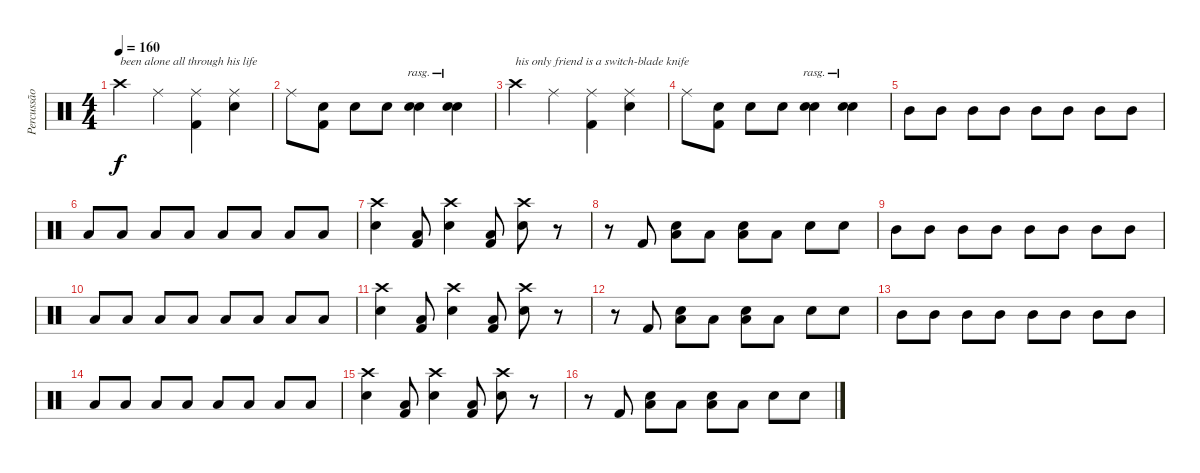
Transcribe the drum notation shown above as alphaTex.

\track ("Percussão" "Percussão") {instrument percussion}
\staff {score}
\articulation defaults
\ts (4 4)
\tempo 160
\clef neutral
\ks c "Crash high (hit)".4{txt "been alone all through his life" dy f} "Ride (middle)".4
("Ride (middle)" "Kick (hit) 2").4 ("Ride (middle)" "Snare (hit) 2").4 |
"Ride (middle)".8 ("Snare (hit) 2" "Kick (hit) 2").8 "Snare (hit) 2".8 "Snare (hit) 2".8 ("Snare (hit) 2" "Snare (hit) 2").4{bd 240 rasg ii} ("Snare (hit) 2" "Snare (hit) 2").4{bu 120 rasg ii} |
"Crash high (hit)".4{txt "his only friend is a switch-blade knife"} "Ride (middle)".4 ("Ride (middle)" "Kick (hit) 2").4 ("Ride (middle)" "Snare (hit) 2").4 |
"Ride (middle)".8 ("Snare (hit) 2" "Kick (hit) 2").8 "Snare (hit) 2".8 "Snare (hit) 2".8 ("Snare (hit) 2" "Snare (hit) 2").4{bd 240 rasg ii} ("Snare (hit) 2" "Snare (hit) 2").4{bu 120 rasg ii} |
"Mid Tom (hit)".8 "Mid Tom (hit)".8 "Mid Tom (hit)".8 "Mid Tom (hit)".8 "Mid Tom (hit)".8 "Mid Tom (hit)".8 "Mid Tom (hit)".8 "Mid Tom (hit)".8 |
"Low Floor Tom (hit)".8 "Low Floor Tom (hit)".8 "Low Floor Tom (hit)".8 "Low Floor Tom (hit)".8 "Low Floor Tom (hit)".8 "Low Floor Tom (hit)".8 "Low Floor Tom (hit)".8 "Low Floor Tom (hit)".8 |
("Crash high (hit)" "Snare (hit) 2").4 ("Low Floor Tom (hit)" "Kick (hit) 2").8 ("Crash high (hit)" "Snare (hit) 2").4 ("Low Floor Tom (hit)" "Kick (hit) 2").8 ("Crash high (hit)" "Snare (hit) 2").8 r.8 |
r.8 "Kick (hit) 2".8 ("Low Tom (hit)" "Snare (hit) 2").8 "Low Tom (hit)".8 ("Low Floor Tom (hit)" "Snare (hit) 2").8 "Low Floor Tom (hit)".8 "Snare (hit) 2".8 "Snare (hit) 2".8 |
"Mid Tom (hit)".8 "Mid Tom (hit)".8 "Mid Tom (hit)".8 "Mid Tom (hit)".8 "Mid Tom (hit)".8 "Mid Tom (hit)".8 "Mid Tom (hit)".8 "Mid Tom (hit)".8 |
"Low Floor Tom (hit)".8 "Low Floor Tom (hit)".8 "Low Floor Tom (hit)".8 "Low Floor Tom (hit)".8 "Low Floor Tom (hit)".8 "Low Floor Tom (hit)".8 "Low Floor Tom (hit)".8 "Low Floor Tom (hit)".8 |
("Crash high (hit)" "Snare (hit) 2").4 ("Low Floor Tom (hit)" "Kick (hit) 2").8 ("Crash high (hit)" "Snare (hit) 2").4 ("Low Floor Tom (hit)" "Kick (hit) 2").8 ("Crash high (hit)" "Snare (hit) 2").8 r.8 |
r.8 "Kick (hit) 2".8 ("Low Tom (hit)" "Snare (hit) 2").8 "Low Tom (hit)".8 ("Low Floor Tom (hit)" "Snare (hit) 2").8 "Low Floor Tom (hit)".8 "Snare (hit) 2".8 "Snare (hit) 2".8 |
"Mid Tom (hit)".8 "Mid Tom (hit)".8 "Mid Tom (hit)".8 "Mid Tom (hit)".8 "Mid Tom (hit)".8 "Mid Tom (hit)".8 "Mid Tom (hit)".8 "Mid Tom (hit)".8 |
"Low Floor Tom (hit)".8 "Low Floor Tom (hit)".8 "Low Floor Tom (hit)".8 "Low Floor Tom (hit)".8 "Low Floor Tom (hit)".8 "Low Floor Tom (hit)".8 "Low Floor Tom (hit)".8 "Low Floor Tom (hit)".8 |
("Crash high (hit)" "Snare (hit) 2").4 ("Low Floor Tom (hit)" "Kick (hit) 2").8 ("Crash high (hit)" "Snare (hit) 2").4 ("Low Floor Tom (hit)" "Kick (hit) 2").8 ("Crash high (hit)" "Snare (hit) 2").8 r.8 |
r.8 "Kick (hit) 2".8 ("Low Tom (hit)" "Snare (hit) 2").8 "Low Tom (hit)".8 ("Low Floor Tom (hit)" "Snare (hit) 2").8 "Low Floor Tom (hit)".8 "Snare (hit) 2".8 "Snare (hit) 2".8
